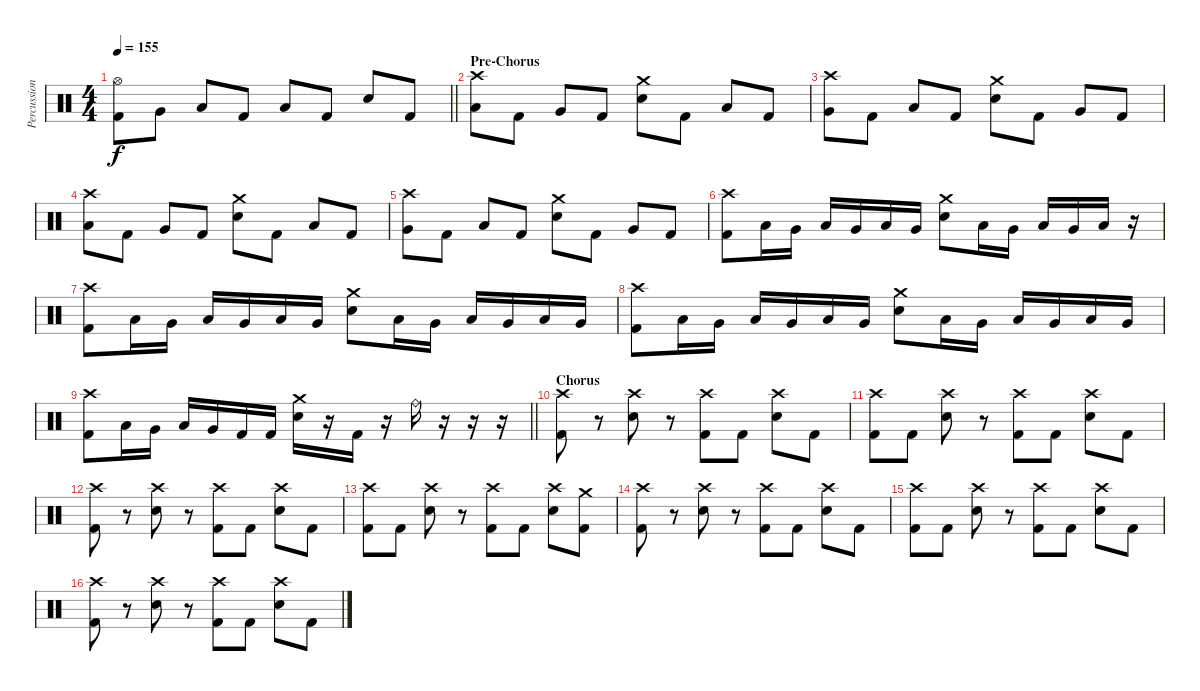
\track ("Percussion" "Percussion") {instrument percussion}
\staff {score}
\articulation defaults
\ts (4 4)
\tempo 155
\clef neutral
\barLineRight lightlight
\ks c
("Hi-Hat (open)" "Kick (hit) 2").8{dy f} "Very Low Tom (hit)".8 "Low Floor Tom (hit)".8 "Kick (hit) 2".8 "Low Floor Tom (hit)".8 "Kick (hit) 2".8 "Snare (hit) 2".8 "Kick (hit) 2".8 |
\section ("" "Pre-Chorus")
("Crash high (hit)" "Low Tom (hit)").8 "Kick (hit) 2".8 "Very Low Tom (hit)".8 "Kick (hit) 2".8 ("Crash medium (hit)" "Snare (hit) 2").8 "Kick (hit) 2".8 "Low Tom (hit)".8 "Kick (hit) 2".8 |
("Crash high (hit)" "Very Low Tom (hit)").8 "Kick (hit) 2".8 "Low Floor Tom (hit)".8 "Kick (hit) 2".8 ("Crash medium (hit)" "Snare (hit) 2").8 "Kick (hit) 2".8 "Very Low Tom (hit)".8 "Kick (hit) 2".8 |
("Crash high (hit)" "Low Tom (hit)").8 "Kick (hit) 2".8 "Very Low Tom (hit)".8 "Kick (hit) 2".8 ("Crash medium (hit)" "Snare (hit) 2").8 "Kick (hit) 2".8 "Low Tom (hit)".8 "Kick (hit) 2".8 |
("Crash high (hit)" "Very Low Tom (hit)").8 "Kick (hit) 2".8 "Low Floor Tom (hit)".8 "Kick (hit) 2".8 ("Crash medium (hit)" "Snare (hit) 2").8 "Kick (hit) 2".8 "Very Low Tom (hit)".8 "Kick (hit) 2".8 |
("Crash high (hit)" "Kick (hit) 2").8 "Low Tom (hit)".16 "Very Low Tom (hit)".16 "Low Tom (hit)".16 "Very Low Tom (hit)".16 "Low Tom (hit)".16 "Very Low Tom (hit)".16 ("Crash medium (hit)" "Snare (hit) 2").8 "Low Tom (hit)".16 "Very Low Tom (hit)".16 "Low Tom (hit)".16 "Very Low Tom (hit)".16 "Low Tom (hit)".16 r.16 |
("Crash high (hit)" "Kick (hit) 2").8 "Low Tom (hit)".16 "Very Low Tom (hit)".16 "Low Tom (hit)".16 "Very Low Tom (hit)".16 "Low Tom (hit)".16 "Very Low Tom (hit)".16 ("Crash medium (hit)" "Snare (hit) 2").8 "Low Tom (hit)".16 "Very Low Tom (hit)".16 "Low Tom (hit)".16 "Very Low Tom (hit)".16 "Low Tom (hit)".16 "Very Low Tom (hit)".16 |
("Crash high (hit)" "Kick (hit) 2").8 "Low Tom (hit)".16 "Very Low Tom (hit)".16 "Low Tom (hit)".16 "Very Low Tom (hit)".16 "Low Tom (hit)".16 "Very Low Tom (hit)".16 ("Crash medium (hit)" "Snare (hit) 2").8 "Low Tom (hit)".16 "Very Low Tom (hit)".16 "Low Tom (hit)".16 "Very Low Tom (hit)".16 "Low Tom (hit)".16 "Very Low Tom (hit)".16 |
\barLineRight lightlight
("Crash high (hit)" "Kick (hit) 2").8 "Low Tom (hit)".16 "Very Low Tom (hit)".16 "Low Tom (hit)".16 "Very Low Tom (hit)".16 "Kick (hit) 2".16 "Kick (hit) 2".16 ("Crash medium (hit)" "Snare (hit) 2").16 r.16 "Kick (hit) 2".16 r.16 "Ride (bell)".16 r.16 r.16 r.16 |
\section ("" "Chorus")
("Crash high (hit)" "Kick (hit) 2").8 r.8 ("Crash high (hit)" "Snare (hit) 2").8 r.8 ("Crash high (hit)" "Kick (hit) 2").8 "Kick (hit) 2".8 ("Crash high (hit)" "Snare (hit) 2").8 "Kick (hit) 2".8 |
("Crash high (hit)" "Kick (hit) 2").8 "Kick (hit) 2".8 ("Crash high (hit)" "Snare (hit) 2").8 r.8 ("Crash high (hit)" "Kick (hit) 2").8 "Kick (hit) 2".8 ("Crash high (hit)" "Snare (hit) 2").8 "Kick (hit) 2".8 |
("Crash high (hit)" "Kick (hit) 2").8 r.8 ("Crash high (hit)" "Snare (hit) 2").8 r.8 ("Crash high (hit)" "Kick (hit) 2").8 "Kick (hit) 2".8 ("Crash high (hit)" "Snare (hit) 2").8 "Kick (hit) 2".8 |
("Crash high (hit)" "Kick (hit) 2").8 "Kick (hit) 2".8 ("Crash high (hit)" "Snare (hit) 2").8 r.8 ("Crash high (hit)" "Kick (hit) 2").8 "Kick (hit) 2".8 ("Crash high (hit)" "Snare (hit) 2").8 ("Crash medium (hit)" "Kick (hit) 2").8 |
("Crash high (hit)" "Kick (hit) 2").8 r.8 ("Crash high (hit)" "Snare (hit) 2").8 r.8 ("Crash high (hit)" "Kick (hit) 2").8 "Kick (hit) 2".8 ("Crash high (hit)" "Snare (hit) 2").8 "Kick (hit) 2".8 |
("Crash high (hit)" "Kick (hit) 2").8 "Kick (hit) 2".8 ("Crash high (hit)" "Snare (hit) 2").8 r.8 ("Crash high (hit)" "Kick (hit) 2").8 "Kick (hit) 2".8 ("Crash high (hit)" "Snare (hit) 2").8 "Kick (hit) 2".8 |
("Crash high (hit)" "Kick (hit) 2").8 r.8 ("Crash high (hit)" "Snare (hit) 2").8 r.8 ("Crash high (hit)" "Kick (hit) 2").8 "Kick (hit) 2".8 ("Crash high (hit)" "Snare (hit) 2").8 "Kick (hit) 2".8
